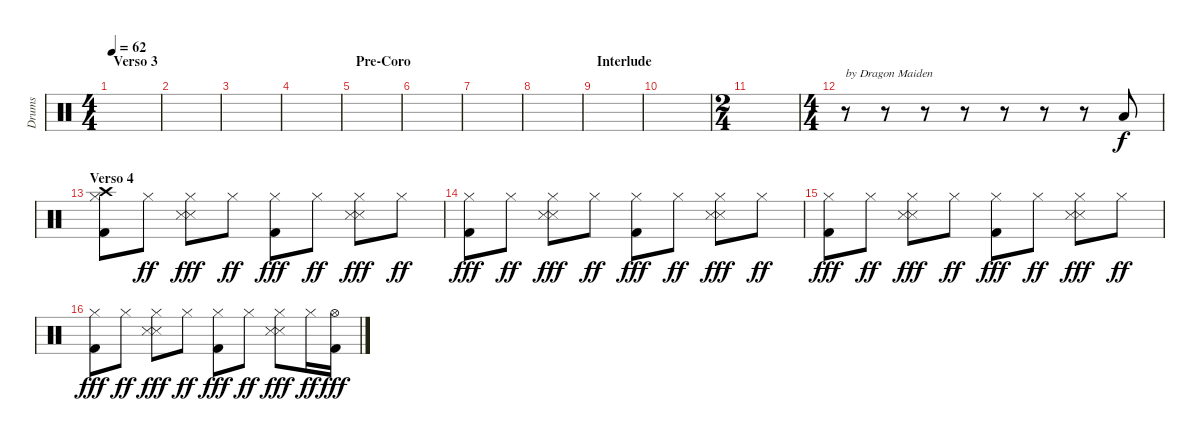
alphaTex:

\track ("Drums" "Drums") {instrument percussion}
\staff {score}
\articulation defaults
\ts (4 4)
\section ("" "Verso 3")
\tempo 62
\clef neutral
\ks c
|
|
|
|
\section ("" "Pre-Coro")
|
|
|
|
\section ("" "Interlude")
|
|
\ts (2 4)
|
\ts (4 4)
r.8{txt "by Dragon Maiden"} r.8 r.8 r.8 r.8 r.8 r.8 "Low Tom (hit)".8 |
\section ("" "Verso 4")
("Crash high (hit)" "Hi-Hat (closed)" "Kick (hit) 2").8 "Hi-Hat (closed)".8{dy ff} ("Hi-Hat (closed)" "Snare (side stick) 3" "Snare (side stick) 3").8{dy fff} "Hi-Hat (closed)".8{dy ff} ("Hi-Hat (closed)" "Kick (hit) 2").8{dy fff} "Hi-Hat (closed)".8{dy ff} ("Hi-Hat (closed)" "Snare (side stick) 3" "Snare (side stick) 3").8{dy fff} "Hi-Hat (closed)".8{dy ff} |
("Hi-Hat (closed)" "Kick (hit) 2").8{dy fff} "Hi-Hat (closed)".8{dy ff} ("Hi-Hat (closed)" "Snare (side stick) 3" "Snare (side stick) 3").8{dy fff} "Hi-Hat (closed)".8{dy ff} ("Hi-Hat (closed)" "Kick (hit) 2").8{dy fff} "Hi-Hat (closed)".8{dy ff} ("Hi-Hat (closed)" "Snare (side stick) 3" "Snare (side stick) 3").8{dy fff} "Hi-Hat (closed)".8{dy ff} |
("Hi-Hat (closed)" "Kick (hit) 2").8{dy fff} "Hi-Hat (closed)".8{dy ff} ("Hi-Hat (closed)" "Snare (side stick) 3" "Snare (side stick) 3").8{dy fff} "Hi-Hat (closed)".8{dy ff} ("Hi-Hat (closed)" "Kick (hit) 2").8{dy fff} "Hi-Hat (closed)".8{dy ff} ("Hi-Hat (closed)" "Snare (side stick) 3" "Snare (side stick) 3").8{dy fff} "Hi-Hat (closed)".8{dy ff} |
("Hi-Hat (closed)" "Kick (hit) 2").8{dy fff} "Hi-Hat (closed)".8{dy ff} ("Hi-Hat (closed)" "Snare (side stick) 3" "Snare (side stick) 3").8{dy fff} "Hi-Hat (closed)".8{dy ff} ("Hi-Hat (closed)" "Kick (hit) 2").8{dy fff} "Hi-Hat (closed)".8{dy ff} ("Hi-Hat (closed)" "Snare (side stick) 3" "Snare (side stick) 3").8{dy fff} "Hi-Hat (closed)".16{dy ff} ("Hi-Hat (open)" "Kick (hit) 2").16{dy fff}
